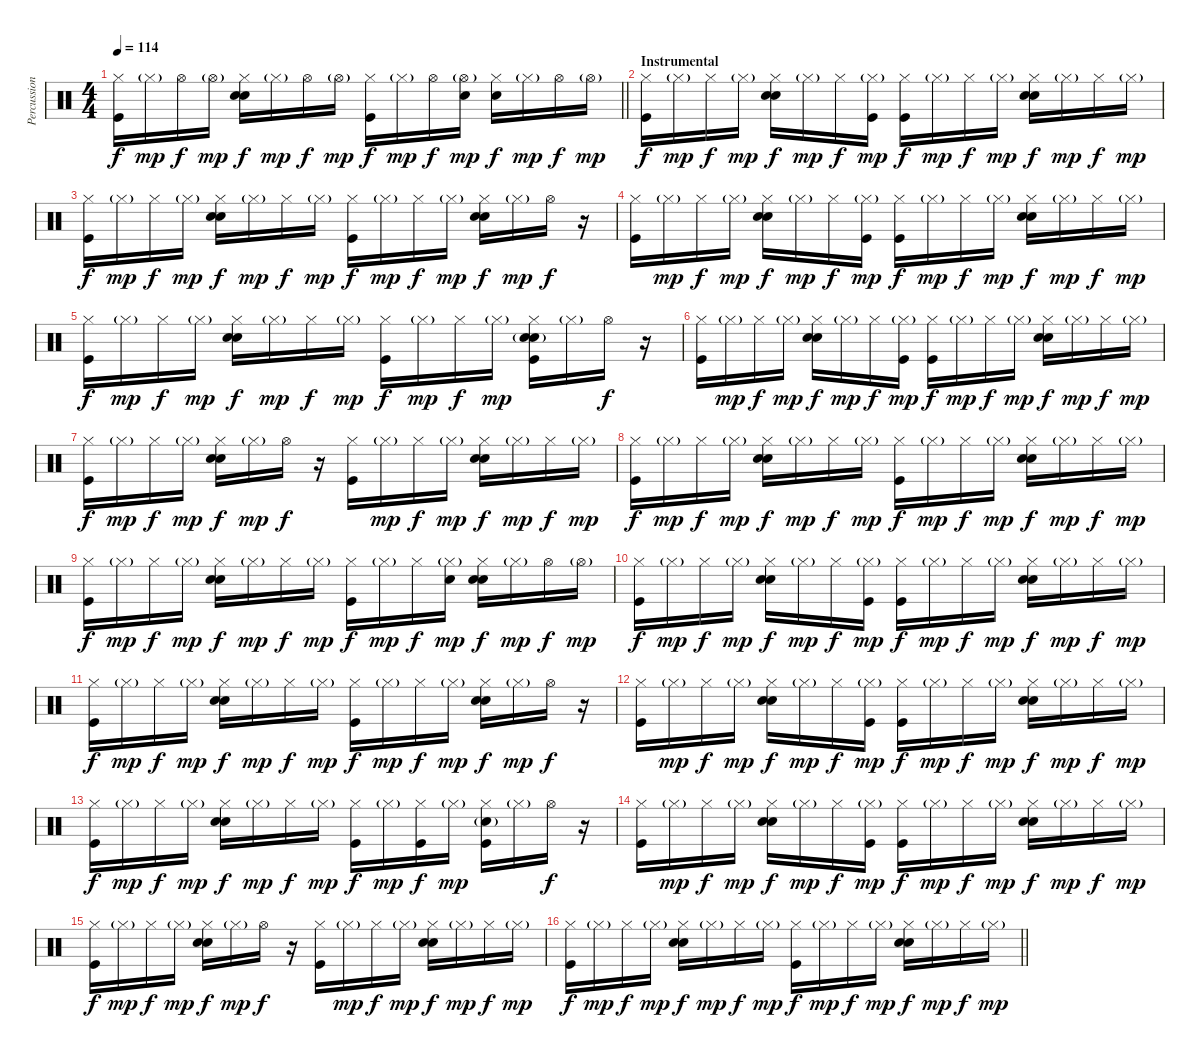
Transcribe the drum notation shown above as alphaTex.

\track ("Percussion" "Percussion") {instrument percussion bank 177}
\staff {score}
\articulation defaults
\ts (4 4)
\tempo 114
\clef neutral
\barLineRight lightlight
\ks c
("Hi-Hat (closed)" "Kick (hit)").16{dy f} "Hi-Hat (closed)"{g}.16{dy mp} "Hi-Hat (open)".16{dy f} "Hi-Hat (open)"{g}.16{dy mp} ("Hi-Hat (closed)" "Hand Clap (hit)" "Snare (hit) 2").16{dy f} "Hi-Hat (closed)"{g}.16{dy mp} "Hi-Hat (open)".16{dy f} "Hi-Hat (open)"{g}.16{dy mp} ("Hi-Hat (closed)" "Kick (hit)").16{dy f} "Hi-Hat (closed)"{g}.16{dy mp} "Hi-Hat (open)".16{dy f} ("Hi-Hat (open)"{g} "Snare (hit) 2").16{dy mp} ("Hi-Hat (closed)" "Snare (hit) 2").16{dy f} "Hi-Hat (closed)"{g}.16{dy mp} "Hi-Hat (open)".16{dy f} "Hi-Hat (open)"{g}.16{dy mp} |
\section ("" "Instrumental")
("Hi-Hat (closed)" "Kick (hit)").16{dy f} "Hi-Hat (closed)"{g}.16{dy mp} "Hi-Hat (closed)".16{dy f} "Hi-Hat (closed)"{g}.16{dy mp} ("Hi-Hat (closed)" "Hand Clap (hit)" "Snare (hit) 2").16{dy f} "Hi-Hat (closed)"{g}.16{dy mp} "Hi-Hat (closed)".16{dy f} ("Hi-Hat (closed)"{g} "Kick (hit)").16{dy mp} ("Hi-Hat (closed)" "Kick (hit)").16{dy f} "Hi-Hat (closed)"{g}.16{dy mp} "Hi-Hat (closed)".16{dy f} "Hi-Hat (closed)"{g}.16{dy mp} ("Hi-Hat (closed)" "Hand Clap (hit)" "Snare (hit) 2").16{dy f} "Hi-Hat (closed)"{g}.16{dy mp} "Hi-Hat (closed)".16{dy f} "Hi-Hat (closed)"{g}.16{dy mp} |
("Hi-Hat (closed)" "Kick (hit)").16{dy f} "Hi-Hat (closed)"{g}.16{dy mp} "Hi-Hat (closed)".16{dy f} "Hi-Hat (closed)"{g}.16{dy mp} ("Hi-Hat (closed)" "Hand Clap (hit)" "Snare (hit) 2").16{dy f} "Hi-Hat (closed)"{g}.16{dy mp} "Hi-Hat (closed)".16{dy f} "Hi-Hat (closed)"{g}.16{dy mp} ("Hi-Hat (closed)" "Kick (hit)").16{dy f} "Hi-Hat (closed)"{g}.16{dy mp} "Hi-Hat (closed)".16{dy f} "Hi-Hat (closed)"{g}.16{dy mp} ("Hi-Hat (closed)" "Hand Clap (hit)" "Snare (hit) 2").16{dy f} "Hi-Hat (closed)"{g}.16{dy mp} "Hi-Hat (open)".16{dy f} r.16 |
("Hi-Hat (closed)" "Kick (hit)").16 "Hi-Hat (closed)"{g}.16{dy mp} "Hi-Hat (closed)".16{dy f} "Hi-Hat (closed)"{g}.16{dy mp} ("Hi-Hat (closed)" "Hand Clap (hit)" "Snare (hit) 2").16{dy f} "Hi-Hat (closed)"{g}.16{dy mp} "Hi-Hat (closed)".16{dy f} ("Hi-Hat (closed)"{g} "Kick (hit)").16{dy mp} ("Hi-Hat (closed)" "Kick (hit)").16{dy f} "Hi-Hat (closed)"{g}.16{dy mp} "Hi-Hat (closed)".16{dy f} "Hi-Hat (closed)"{g}.16{dy mp} ("Hi-Hat (closed)" "Hand Clap (hit)" "Snare (hit) 2").16{dy f} "Hi-Hat (closed)"{g}.16{dy mp} "Hi-Hat (closed)".16{dy f} "Hi-Hat (closed)"{g}.16{dy mp} |
("Hi-Hat (closed)" "Kick (hit)").16{dy f} "Hi-Hat (closed)"{g}.16{dy mp} "Hi-Hat (closed)".16{dy f} "Hi-Hat (closed)"{g}.16{dy mp} ("Hi-Hat (closed)" "Hand Clap (hit)" "Snare (hit) 2").16{dy f} "Hi-Hat (closed)"{g}.16{dy mp} "Hi-Hat (closed)".16{dy f} "Hi-Hat (closed)"{g}.16{dy mp} ("Hi-Hat (closed)" "Kick (hit)").16{dy f} "Hi-Hat (closed)"{g}.16{dy mp} "Hi-Hat (closed)".16{dy f} "Hi-Hat (closed)"{g}.16{dy mp} ("Hi-Hat (closed)" "Hand Clap (hit)" "Snare (hit) 2"{g} "Kick (hit)").16 "Hi-Hat (closed)"{g}.16 "Hi-Hat (open)".16{dy f} r.16 |
("Hi-Hat (closed)" "Kick (hit)").16 "Hi-Hat (closed)"{g}.16{dy mp} "Hi-Hat (closed)".16{dy f} "Hi-Hat (closed)"{g}.16{dy mp} ("Hi-Hat (closed)" "Hand Clap (hit)" "Snare (hit) 2").16{dy f} "Hi-Hat (closed)"{g}.16{dy mp} "Hi-Hat (closed)".16{dy f} ("Hi-Hat (closed)"{g} "Kick (hit)").16{dy mp} ("Hi-Hat (closed)" "Kick (hit)").16{dy f} "Hi-Hat (closed)"{g}.16{dy mp} "Hi-Hat (closed)".16{dy f} "Hi-Hat (closed)"{g}.16{dy mp} ("Hi-Hat (closed)" "Hand Clap (hit)" "Snare (hit) 2").16{dy f} "Hi-Hat (closed)"{g}.16{dy mp} "Hi-Hat (closed)".16{dy f} "Hi-Hat (closed)"{g}.16{dy mp} |
("Hi-Hat (closed)" "Kick (hit)").16{dy f} "Hi-Hat (closed)"{g}.16{dy mp} "Hi-Hat (closed)".16{dy f} "Hi-Hat (closed)"{g}.16{dy mp} ("Hi-Hat (closed)" "Hand Clap (hit)" "Snare (hit) 2").16{dy f} "Hi-Hat (closed)"{g}.16{dy mp} "Hi-Hat (open)".16{dy f} r.16 ("Hi-Hat (closed)" "Kick (hit)").16 "Hi-Hat (closed)"{g}.16{dy mp} "Hi-Hat (closed)".16{dy f} "Hi-Hat (closed)"{g}.16{dy mp} ("Hi-Hat (closed)" "Hand Clap (hit)" "Snare (hit) 2").16{dy f} "Hi-Hat (closed)"{g}.16{dy mp} "Hi-Hat (closed)".16{dy f} "Hi-Hat (closed)"{g}.16{dy mp} |
("Hi-Hat (closed)" "Kick (hit)").16{dy f} "Hi-Hat (closed)"{g}.16{dy mp} "Hi-Hat (closed)".16{dy f} "Hi-Hat (closed)"{g}.16{dy mp} ("Hi-Hat (closed)" "Hand Clap (hit)" "Snare (hit) 2").16{dy f} "Hi-Hat (closed)"{g}.16{dy mp} "Hi-Hat (closed)".16{dy f} "Hi-Hat (closed)"{g}.16{dy mp} ("Hi-Hat (closed)" "Kick (hit)").16{dy f} "Hi-Hat (closed)"{g}.16{dy mp} "Hi-Hat (closed)".16{dy f} "Hi-Hat (closed)"{g}.16{dy mp} ("Hi-Hat (closed)" "Hand Clap (hit)" "Snare (hit) 2").16{dy f} "Hi-Hat (closed)"{g}.16{dy mp} "Hi-Hat (closed)".16{dy f} "Hi-Hat (closed)"{g}.16{dy mp} |
("Hi-Hat (closed)" "Kick (hit)").16{dy f} "Hi-Hat (closed)"{g}.16{dy mp} "Hi-Hat (closed)".16{dy f} "Hi-Hat (closed)"{g}.16{dy mp} ("Hi-Hat (closed)" "Hand Clap (hit)" "Snare (hit) 2").16{dy f} "Hi-Hat (closed)"{g}.16{dy mp} "Hi-Hat (closed)".16{dy f} "Hi-Hat (closed)"{g}.16{dy mp} ("Hi-Hat (closed)" "Kick (hit)").16{dy f} "Hi-Hat (closed)"{g}.16{dy mp} "Hi-Hat (closed)".16{dy f} ("Hi-Hat (closed)"{g} "Snare (hit) 2").16{dy mp} ("Hi-Hat (closed)" "Hand Clap (hit)" "Snare (hit) 2").16{dy f} "Hi-Hat (closed)"{g}.16{dy mp} "Hi-Hat (open)".16{dy f} "Hi-Hat (open)"{g}.16{dy mp} |
("Hi-Hat (closed)" "Kick (hit)").16{dy f} "Hi-Hat (closed)"{g}.16{dy mp} "Hi-Hat (closed)".16{dy f} "Hi-Hat (closed)"{g}.16{dy mp} ("Hi-Hat (closed)" "Hand Clap (hit)" "Snare (hit) 2").16{dy f} "Hi-Hat (closed)"{g}.16{dy mp} "Hi-Hat (closed)".16{dy f} ("Hi-Hat (closed)"{g} "Kick (hit)").16{dy mp} ("Hi-Hat (closed)" "Kick (hit)").16{dy f} "Hi-Hat (closed)"{g}.16{dy mp} "Hi-Hat (closed)".16{dy f} "Hi-Hat (closed)"{g}.16{dy mp} ("Hi-Hat (closed)" "Hand Clap (hit)" "Snare (hit) 2").16{dy f} "Hi-Hat (closed)"{g}.16{dy mp} "Hi-Hat (closed)".16{dy f} "Hi-Hat (closed)"{g}.16{dy mp} |
("Hi-Hat (closed)" "Kick (hit)").16{dy f} "Hi-Hat (closed)"{g}.16{dy mp} "Hi-Hat (closed)".16{dy f} "Hi-Hat (closed)"{g}.16{dy mp} ("Hi-Hat (closed)" "Hand Clap (hit)" "Snare (hit) 2").16{dy f} "Hi-Hat (closed)"{g}.16{dy mp} "Hi-Hat (closed)".16{dy f} "Hi-Hat (closed)"{g}.16{dy mp} ("Hi-Hat (closed)" "Kick (hit)").16{dy f} "Hi-Hat (closed)"{g}.16{dy mp} "Hi-Hat (closed)".16{dy f} "Hi-Hat (closed)"{g}.16{dy mp} ("Hi-Hat (closed)" "Hand Clap (hit)" "Snare (hit) 2").16{dy f} "Hi-Hat (closed)"{g}.16{dy mp} "Hi-Hat (open)".16{dy f} r.16 |
("Hi-Hat (closed)" "Kick (hit)").16 "Hi-Hat (closed)"{g}.16{dy mp} "Hi-Hat (closed)".16{dy f} "Hi-Hat (closed)"{g}.16{dy mp} ("Hi-Hat (closed)" "Hand Clap (hit)" "Snare (hit) 2").16{dy f} "Hi-Hat (closed)"{g}.16{dy mp} "Hi-Hat (closed)".16{dy f} ("Hi-Hat (closed)"{g} "Kick (hit)").16{dy mp} ("Hi-Hat (closed)" "Kick (hit)").16{dy f} "Hi-Hat (closed)"{g}.16{dy mp} "Hi-Hat (closed)".16{dy f} "Hi-Hat (closed)"{g}.16{dy mp} ("Hi-Hat (closed)" "Hand Clap (hit)" "Snare (hit) 2").16{dy f} "Hi-Hat (closed)"{g}.16{dy mp} "Hi-Hat (closed)".16{dy f} "Hi-Hat (closed)"{g}.16{dy mp} |
("Hi-Hat (closed)" "Kick (hit)").16{dy f} "Hi-Hat (closed)"{g}.16{dy mp} "Hi-Hat (closed)".16{dy f} "Hi-Hat (closed)"{g}.16{dy mp} ("Hi-Hat (closed)" "Hand Clap (hit)" "Snare (hit) 2").16{dy f} "Hi-Hat (closed)"{g}.16{dy mp} "Hi-Hat (closed)".16{dy f} "Hi-Hat (closed)"{g}.16{dy mp} ("Hi-Hat (closed)" "Kick (hit)").16{dy f} "Hi-Hat (closed)"{g}.16{dy mp} ("Hi-Hat (closed)" "Kick (hit)").16{dy f} "Hi-Hat (closed)"{g}.16{dy mp} ("Hi-Hat (closed)" "Snare (hit) 2"{g} "Kick (hit)").16 "Hi-Hat (closed)"{g}.16 "Hi-Hat (open)".16{dy f} r.16 |
("Hi-Hat (closed)" "Kick (hit)").16 "Hi-Hat (closed)"{g}.16{dy mp} "Hi-Hat (closed)".16{dy f} "Hi-Hat (closed)"{g}.16{dy mp} ("Hi-Hat (closed)" "Hand Clap (hit)" "Snare (hit) 2").16{dy f} "Hi-Hat (closed)"{g}.16{dy mp} "Hi-Hat (closed)".16{dy f} ("Hi-Hat (closed)"{g} "Kick (hit)").16{dy mp} ("Hi-Hat (closed)" "Kick (hit)").16{dy f} "Hi-Hat (closed)"{g}.16{dy mp} "Hi-Hat (closed)".16{dy f} "Hi-Hat (closed)"{g}.16{dy mp} ("Hi-Hat (closed)" "Hand Clap (hit)" "Snare (hit) 2").16{dy f} "Hi-Hat (closed)"{g}.16{dy mp} "Hi-Hat (closed)".16{dy f} "Hi-Hat (closed)"{g}.16{dy mp} |
("Hi-Hat (closed)" "Kick (hit)").16{dy f} "Hi-Hat (closed)"{g}.16{dy mp} "Hi-Hat (closed)".16{dy f} "Hi-Hat (closed)"{g}.16{dy mp} ("Hi-Hat (closed)" "Hand Clap (hit)" "Snare (hit) 2").16{dy f} "Hi-Hat (closed)"{g}.16{dy mp} "Hi-Hat (open)".16{dy f} r.16 ("Hi-Hat (closed)" "Kick (hit)").16 "Hi-Hat (closed)"{g}.16{dy mp} "Hi-Hat (closed)".16{dy f} "Hi-Hat (closed)"{g}.16{dy mp} ("Hi-Hat (closed)" "Hand Clap (hit)" "Snare (hit) 2").16{dy f} "Hi-Hat (closed)"{g}.16{dy mp} "Hi-Hat (closed)".16{dy f} "Hi-Hat (closed)"{g}.16{dy mp} |
\barLineRight lightlight
("Hi-Hat (closed)" "Kick (hit)").16{dy f} "Hi-Hat (closed)"{g}.16{dy mp} "Hi-Hat (closed)".16{dy f} "Hi-Hat (closed)"{g}.16{dy mp} ("Hi-Hat (closed)" "Hand Clap (hit)" "Snare (hit) 2").16{dy f} "Hi-Hat (closed)"{g}.16{dy mp} "Hi-Hat (closed)".16{dy f} "Hi-Hat (closed)"{g}.16{dy mp} ("Hi-Hat (closed)" "Kick (hit)").16{dy f} "Hi-Hat (closed)"{g}.16{dy mp} "Hi-Hat (closed)".16{dy f} "Hi-Hat (closed)"{g}.16{dy mp} ("Hi-Hat (closed)" "Hand Clap (hit)" "Snare (hit) 2").16{dy f} "Hi-Hat (closed)"{g}.16{dy mp} "Hi-Hat (closed)".16{dy f} "Hi-Hat (closed)"{g}.16{dy mp}
